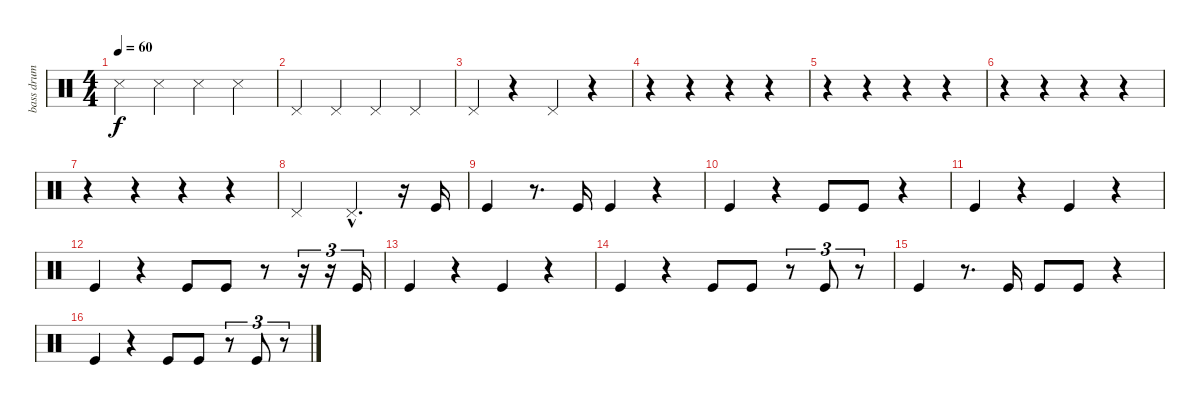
\track ("bass drum" "bass drum") {instrument percussion}
\staff {score}
\articulation defaults
\ts (4 4)
\tempo 60
\clef neutral
\ks c "Snare (side stick) 3".4{dy f} "Snare (side stick) 3".4 "Snare (side stick) 3".4 "Snare (side stick) 3".4
|
"Pedal Hi-Hat (hit)".4 "Pedal Hi-Hat (hit)".4 "Pedal Hi-Hat (hit)".4 "Pedal Hi-Hat (hit)".4 |
"Pedal Hi-Hat (hit)".4 r.4 "Pedal Hi-Hat (hit)".4 r.4 |
r.4 r.4 r.4 r.4 |
r.4 r.4 r.4 r.4 |
r.4 r.4 r.4 r.4 |
r.4 r.4 r.4 r.4 |
"Pedal Hi-Hat (hit)".2 "Pedal Hi-Hat (hit)"{hac}.4{d} r.16 "Kick (hit)".16 |
"Kick (hit)".4 r.8{d} "Kick (hit)".16 "Kick (hit)".4 r.4 |
"Kick (hit)".4 r.4 "Kick (hit)".8 "Kick (hit)".8 r.4 |
"Kick (hit)".4 r.4 "Kick (hit)".4 r.4 |
"Kick (hit)".4 r.4 "Kick (hit)".8 "Kick (hit)".8 r.8 r.16{tu (3 2)} r.16{tu (3 2)} "Kick (hit)".16{tu (3 2)} |
"Kick (hit)".4 r.4 "Kick (hit)".4 r.4 |
"Kick (hit)".4 r.4 "Kick (hit)".8 "Kick (hit)".8 r.8{tu (3 2)} "Kick (hit)".8{tu (3 2)} r.8{tu (3 2)} |
"Kick (hit)".4 r.8{d} "Kick (hit)".16 "Kick (hit)".8 "Kick (hit)".8 r.4 |
"Kick (hit)".4 r.4 "Kick (hit)".8 "Kick (hit)".8 r.8{tu (3 2)} "Kick (hit)".8{tu (3 2)} r.8{tu (3 2)}
